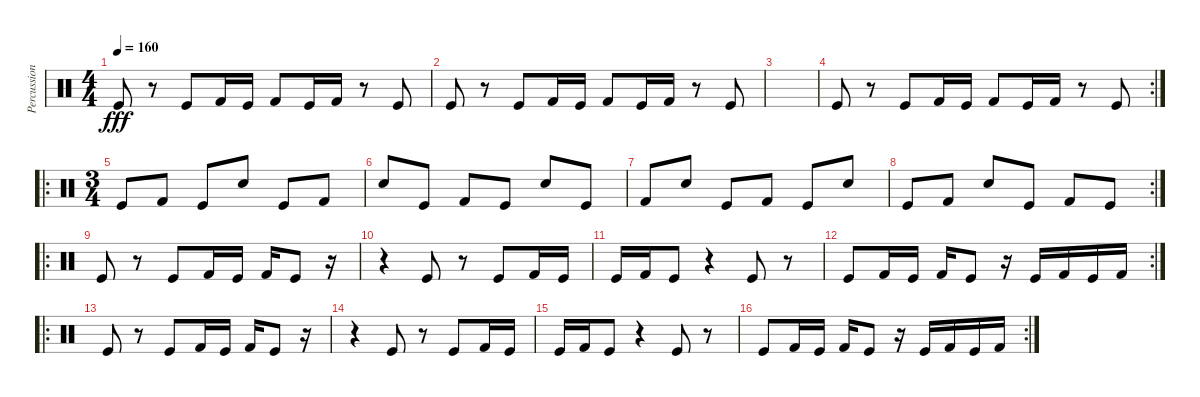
\track ("Percussion" "Percussion") {instrument percussion}
\staff {score}
\articulation defaults
\ts (4 4)
\tempo 160
\clef neutral
\ks c "Kick (hit)".8{dy fff}
r.8 "Kick (hit)".8 "Kick (hit) 2".16 "Kick (hit)".16 "Kick (hit) 2".8 "Kick (hit)".16 "Kick (hit) 2".16 r.8 "Kick (hit)".8 |
"Kick (hit)".8 r.8 "Kick (hit)".8 "Kick (hit) 2".16 "Kick (hit)".16 "Kick (hit) 2".8 "Kick (hit)".16 "Kick (hit) 2".16 r.8 "Kick (hit)".8 |
|
\rc 2 "Kick (hit)".8
r.8 "Kick (hit)".8 "Kick (hit) 2".16 "Kick (hit)".16 "Kick (hit) 2".8 "Kick (hit)".16 "Kick (hit) 2".16 r.8 "Kick (hit)".8 |
\ro
\ts (3 4)
"Kick (hit)".8 "Kick (hit) 2".8 "Kick (hit)".8 "Snare (hit) 2".8 "Kick (hit)".8 "Kick (hit) 2".8 |
"Snare (hit) 2".8 "Kick (hit)".8 "Kick (hit) 2".8 "Kick (hit)".8 "Snare (hit) 2".8 "Kick (hit)".8 |
"Kick (hit) 2".8 "Snare (hit) 2".8 "Kick (hit)".8 "Kick (hit) 2".8 "Kick (hit)".8 "Snare (hit) 2".8 |
\rc 2 "Kick (hit)".8 "Kick (hit) 2".8 "Snare (hit) 2".8 "Kick (hit)".8 "Kick (hit) 2".8 "Kick (hit)".8
|
\ro "Kick (hit)".8
r.8 "Kick (hit)".8 "Kick (hit) 2".16 "Kick (hit)".16 "Kick (hit) 2".16 "Kick (hit)".8 r.16 |
r.4 "Kick (hit)".8 r.8 "Kick (hit)".8 "Kick (hit) 2".16 "Kick (hit)".16 |
"Kick (hit)".16 "Kick (hit) 2".16 "Kick (hit)".8 r.4 "Kick (hit)".8 r.8 |
\rc 2 "Kick (hit)".8 "Kick (hit) 2".16 "Kick (hit)".16 "Kick (hit) 2".16 "Kick (hit)".8
r.16 "Kick (hit)".16 "Kick (hit) 2".16 "Kick (hit)".16 "Kick (hit) 2".16 |
\ro "Kick (hit)".8
r.8 "Kick (hit)".8 "Kick (hit) 2".16 "Kick (hit)".16 "Kick (hit) 2".16 "Kick (hit)".8 r.16 |
r.4 "Kick (hit)".8 r.8 "Kick (hit)".8 "Kick (hit) 2".16 "Kick (hit)".16 |
"Kick (hit)".16 "Kick (hit) 2".16 "Kick (hit)".8 r.4 "Kick (hit)".8 r.8 |
\rc 2 "Kick (hit)".8 "Kick (hit) 2".16 "Kick (hit)".16 "Kick (hit) 2".16 "Kick (hit)".8
r.16 "Kick (hit)".16 "Kick (hit) 2".16 "Kick (hit)".16 "Kick (hit) 2".16
